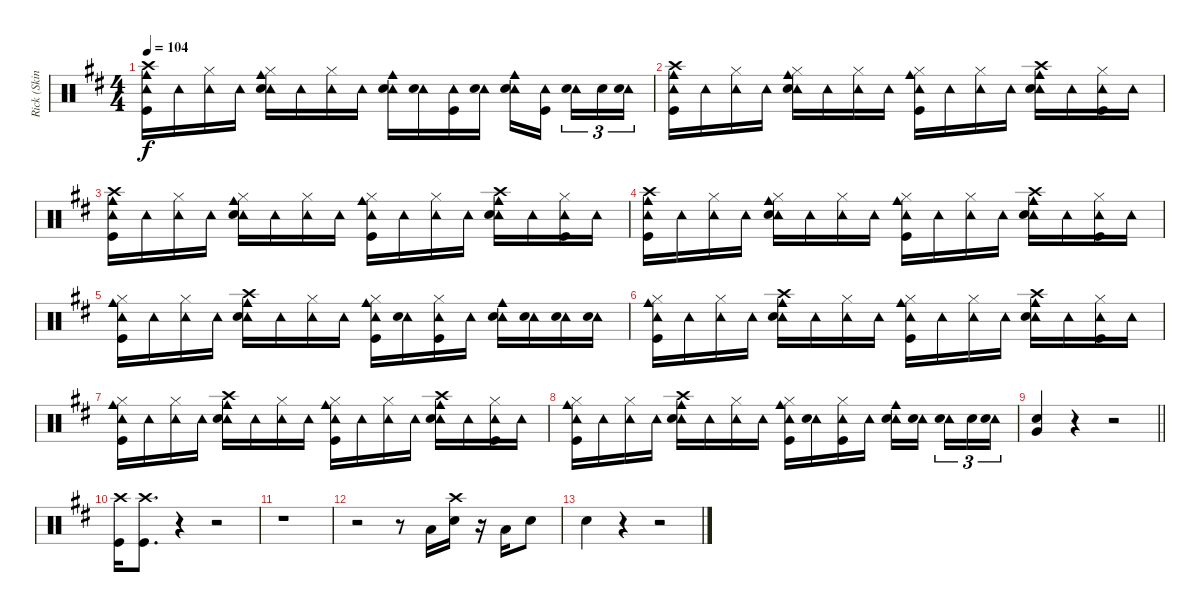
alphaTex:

\track ("Rick (Skins)" "Rick (Skin") {instrument percussion}
\staff {score}
\articulation defaults
\ts (4 4)
\tempo 104
\clef neutral
\ks d
("Cowbell medium (hit)" "Tambourine (hit)" "Crash high (hit)" "Kick (hit)").16{dy f} "Tambourine (hit)".16 ("Tambourine (hit)" "Hi-Hat (closed)").16 "Tambourine (hit)".16 ("Cowbell medium (hit)" "Tambourine (hit)" "Hi-Hat (closed)" "Snare (hit) 2").16 "Tambourine (hit)".16 ("Tambourine (hit)" "Hi-Hat (closed)").16 "Tambourine (hit)".16 ("Cowbell medium (hit)" "Tambourine (hit)" "Snare (hit) 2").16 ("Tambourine (hit)" "Snare (hit) 2").16 ("Tambourine (hit)" "Kick (hit)").16 ("Tambourine (hit)" "Snare (hit) 2").16 ("Cowbell medium (hit)" "Tambourine (hit)" "Snare (hit) 2").16 ("Tambourine (hit)" "Kick (hit)").16{beam splitsecondary} ("Tambourine (hit)" "Snare (hit) 2").16{tu (3 2)} "Snare (hit) 2".16{tu (3 2)} ("Tambourine (hit)" "Snare (hit) 2").16{tu (3 2)} |
("Cowbell medium (hit)" "Tambourine (hit)" "Crash high (hit)" "Kick (hit)").16 "Tambourine (hit)".16 ("Tambourine (hit)" "Hi-Hat (closed)").16 "Tambourine (hit)".16 ("Cowbell medium (hit)" "Tambourine (hit)" "Hi-Hat (closed)" "Snare (hit) 2").16 "Tambourine (hit)".16 ("Tambourine (hit)" "Hi-Hat (closed)").16 "Tambourine (hit)".16 ("Cowbell medium (hit)" "Tambourine (hit)" "Hi-Hat (closed)" "Kick (hit)").16 "Tambourine (hit)".16 ("Tambourine (hit)" "Hi-Hat (closed)").16 "Tambourine (hit)".16 ("Cowbell medium (hit)" "Tambourine (hit)" "Crash high (hit)" "Snare (hit) 2").16 "Tambourine (hit)".16 ("Tambourine (hit)" "Hi-Hat (closed)" "Kick (hit)").16 "Tambourine (hit)".16 |
("Cowbell medium (hit)" "Tambourine (hit)" "Crash high (hit)" "Kick (hit)").16 "Tambourine (hit)".16 ("Tambourine (hit)" "Hi-Hat (closed)").16 "Tambourine (hit)".16 ("Cowbell medium (hit)" "Tambourine (hit)" "Hi-Hat (closed)" "Snare (hit) 2").16 "Tambourine (hit)".16 ("Tambourine (hit)" "Hi-Hat (closed)").16 "Tambourine (hit)".16 ("Cowbell medium (hit)" "Tambourine (hit)" "Hi-Hat (closed)" "Kick (hit)").16 "Tambourine (hit)".16 ("Tambourine (hit)" "Hi-Hat (closed)").16 "Tambourine (hit)".16 ("Cowbell medium (hit)" "Tambourine (hit)" "Crash high (hit)" "Snare (hit) 2").16 "Tambourine (hit)".16 ("Tambourine (hit)" "Hi-Hat (closed)" "Kick (hit)").16 "Tambourine (hit)".16 |
("Cowbell medium (hit)" "Tambourine (hit)" "Crash high (hit)" "Kick (hit)").16 "Tambourine (hit)".16 ("Tambourine (hit)" "Hi-Hat (closed)").16 "Tambourine (hit)".16 ("Cowbell medium (hit)" "Tambourine (hit)" "Hi-Hat (closed)" "Snare (hit) 2").16 "Tambourine (hit)".16 ("Tambourine (hit)" "Hi-Hat (closed)").16 "Tambourine (hit)".16 ("Cowbell medium (hit)" "Tambourine (hit)" "Hi-Hat (closed)" "Kick (hit)").16 "Tambourine (hit)".16 ("Tambourine (hit)" "Hi-Hat (closed)").16 "Tambourine (hit)".16 ("Cowbell medium (hit)" "Tambourine (hit)" "Crash high (hit)" "Snare (hit) 2").16 "Tambourine (hit)".16 ("Tambourine (hit)" "Hi-Hat (closed)" "Kick (hit)").16 "Tambourine (hit)".16 |
("Cowbell medium (hit)" "Tambourine (hit)" "Hi-Hat (closed)" "Kick (hit)").16 "Tambourine (hit)".16 ("Tambourine (hit)" "Hi-Hat (closed)").16 "Tambourine (hit)".16 ("Cowbell medium (hit)" "Tambourine (hit)" "Crash high (hit)" "Snare (hit) 2").16 "Tambourine (hit)".16 ("Tambourine (hit)" "Hi-Hat (closed)").16 "Tambourine (hit)".16 ("Cowbell medium (hit)" "Tambourine (hit)" "Hi-Hat (closed)" "Kick (hit)").16 ("Tambourine (hit)" "Snare (hit) 2").16 ("Tambourine (hit)" "Hi-Hat (closed)" "Kick (hit)").16 "Tambourine (hit)".16 ("Cowbell medium (hit)" "Tambourine (hit)" "Snare (hit) 2").16 ("Tambourine (hit)" "Snare (hit) 2").16 ("Tambourine (hit)" "Snare (hit) 2").16 ("Tambourine (hit)" "Snare (hit) 2").16 |
("Cowbell medium (hit)" "Tambourine (hit)" "Hi-Hat (closed)" "Kick (hit)").16 "Tambourine (hit)".16 ("Tambourine (hit)" "Hi-Hat (closed)").16 "Tambourine (hit)".16 ("Cowbell medium (hit)" "Tambourine (hit)" "Crash high (hit)" "Snare (hit) 2").16 "Tambourine (hit)".16 ("Tambourine (hit)" "Hi-Hat (closed)").16 "Tambourine (hit)".16 ("Cowbell medium (hit)" "Tambourine (hit)" "Hi-Hat (closed)" "Kick (hit)").16 "Tambourine (hit)".16 ("Tambourine (hit)" "Hi-Hat (closed)").16 "Tambourine (hit)".16 ("Cowbell medium (hit)" "Tambourine (hit)" "Crash high (hit)" "Snare (hit) 2").16 "Tambourine (hit)".16 ("Tambourine (hit)" "Hi-Hat (closed)" "Kick (hit)").16 "Tambourine (hit)".16 |
("Cowbell medium (hit)" "Tambourine (hit)" "Hi-Hat (closed)" "Kick (hit)").16 "Tambourine (hit)".16 ("Tambourine (hit)" "Hi-Hat (closed)").16 "Tambourine (hit)".16 ("Cowbell medium (hit)" "Tambourine (hit)" "Crash high (hit)" "Snare (hit) 2").16 "Tambourine (hit)".16 ("Tambourine (hit)" "Hi-Hat (closed)").16 "Tambourine (hit)".16 ("Cowbell medium (hit)" "Tambourine (hit)" "Hi-Hat (closed)" "Kick (hit)").16 "Tambourine (hit)".16 ("Tambourine (hit)" "Hi-Hat (closed)").16 "Tambourine (hit)".16 ("Cowbell medium (hit)" "Tambourine (hit)" "Crash high (hit)" "Snare (hit) 2").16 "Tambourine (hit)".16 ("Tambourine (hit)" "Hi-Hat (closed)" "Kick (hit)").16 "Tambourine (hit)".16 |
("Cowbell medium (hit)" "Tambourine (hit)" "Hi-Hat (closed)" "Kick (hit)").16 "Tambourine (hit)".16 ("Tambourine (hit)" "Hi-Hat (closed)").16 "Tambourine (hit)".16 ("Cowbell medium (hit)" "Tambourine (hit)" "Crash high (hit)" "Snare (hit) 2").16 "Tambourine (hit)".16 ("Tambourine (hit)" "Hi-Hat (closed)").16 "Tambourine (hit)".16 ("Cowbell medium (hit)" "Tambourine (hit)" "Hi-Hat (closed)" "Kick (hit)").16 ("Tambourine (hit)" "Snare (hit) 2").16 ("Tambourine (hit)" "Hi-Hat (closed)" "Kick (hit)").16 "Tambourine (hit)".16 ("Cowbell medium (hit)" "Tambourine (hit)" "Snare (hit) 2").16 ("Tambourine (hit)" "Snare (hit) 2").16{beam splitsecondary} ("Tambourine (hit)" "Snare (hit) 2").16{tu (3 2)} "Snare (hit) 2".16{tu (3 2)} ("Tambourine (hit)" "Snare (hit) 2").16{tu (3 2)} |
\barLineRight lightlight
("Snare (hit) 2" "Very Low Tom (hit)").4 r.4 r.2 |
("Crash high (hit)" "Kick (hit)").16 ("Crash high (hit)" "Kick (hit)").8{d} r.4 r.2 |
r.1 |
r.2 r.8 "Low Tom (hit)".16 ("Crash high (hit)" "Snare (hit) 2").16 r.16 "Low Tom (hit)".16 "Snare (hit) 2".8 |
"Snare (hit) 2".4 r.4 r.2
